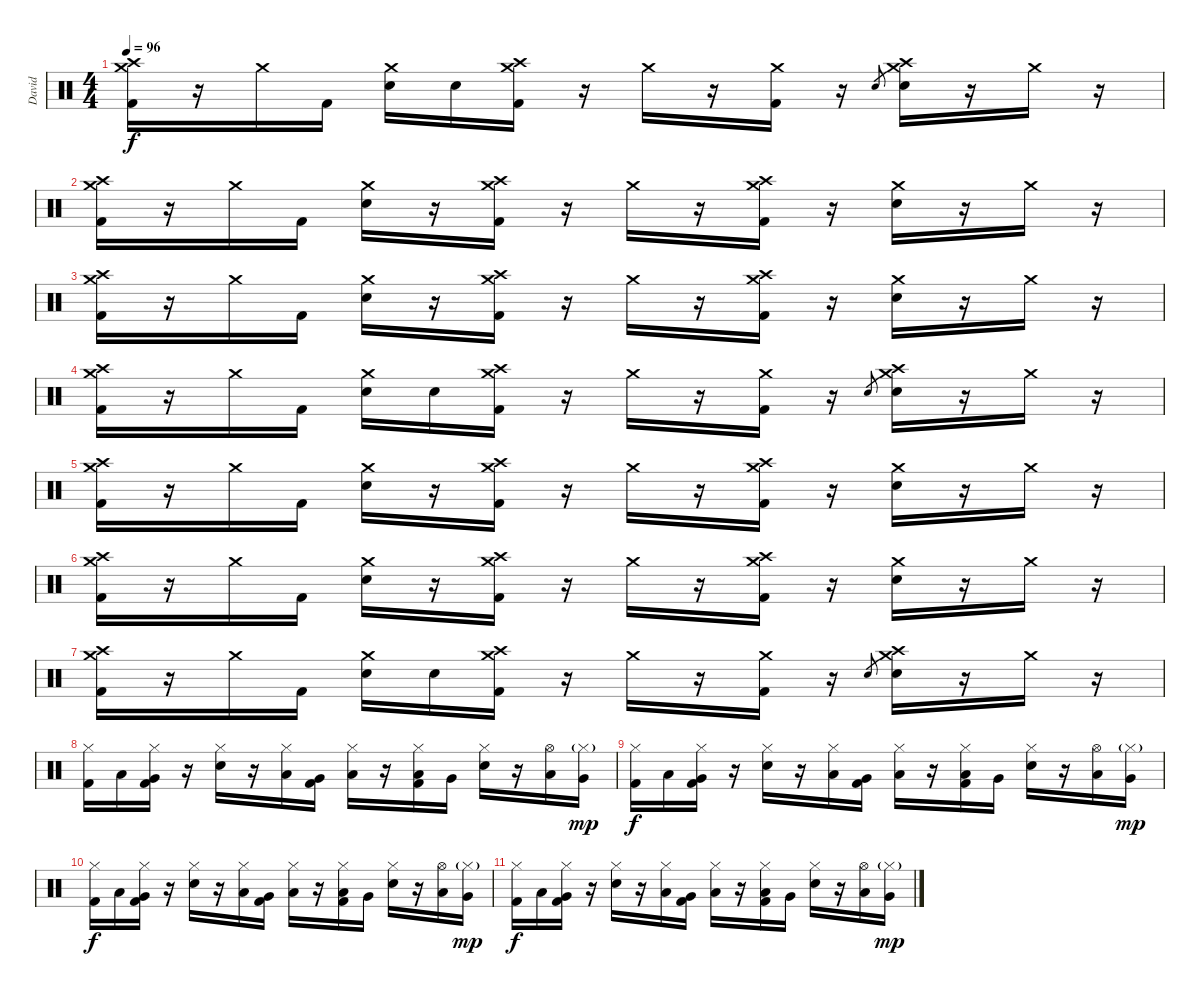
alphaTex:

\track ("David" "David") {instrument percussion}
\staff {score}
\articulation defaults
\ts (4 4)
\tempo 96
\clef neutral
\ks c
("Crash high (hit)" "Crash medium (hit)" "Kick (hit) 2").16{dy f} r.16 "Crash medium (hit)".16 "Kick (hit) 2".16 ("Crash medium (hit)" "Electric Snare (hit)").16 "Electric Snare (hit)".16 ("Crash high (hit)" "Crash medium (hit)" "Kick (hit) 2").16 r.16 "Crash medium (hit)".16 r.16 ("Crash medium (hit)" "Kick (hit) 2").16 r.16 "Electric Snare (hit)".8{gr} ("Crash high (hit)" "Crash medium (hit)" "Electric Snare (hit)").16 r.16 "Crash medium (hit)".16 r.16 |
("Crash high (hit)" "Crash medium (hit)" "Kick (hit) 2").16 r.16 "Crash medium (hit)".16 "Kick (hit) 2".16 ("Crash medium (hit)" "Electric Snare (hit)").16 r.16 ("Crash high (hit)" "Crash medium (hit)" "Kick (hit) 2").16 r.16 "Crash medium (hit)".16 r.16 ("Crash high (hit)" "Crash medium (hit)" "Kick (hit) 2").16 r.16 ("Crash medium (hit)" "Electric Snare (hit)").16 r.16 "Crash medium (hit)".16 r.16 |
("Crash high (hit)" "Crash medium (hit)" "Kick (hit) 2").16 r.16 "Crash medium (hit)".16 "Kick (hit) 2".16 ("Crash medium (hit)" "Electric Snare (hit)").16 r.16 ("Crash high (hit)" "Crash medium (hit)" "Kick (hit) 2").16 r.16 "Crash medium (hit)".16 r.16 ("Crash high (hit)" "Crash medium (hit)" "Kick (hit) 2").16 r.16 ("Crash medium (hit)" "Electric Snare (hit)").16 r.16 "Crash medium (hit)".16 r.16 |
("Crash high (hit)" "Crash medium (hit)" "Kick (hit) 2").16 r.16 "Crash medium (hit)".16 "Kick (hit) 2".16 ("Crash medium (hit)" "Electric Snare (hit)").16 "Electric Snare (hit)".16 ("Crash high (hit)" "Crash medium (hit)" "Kick (hit) 2").16 r.16 "Crash medium (hit)".16 r.16 ("Crash medium (hit)" "Kick (hit) 2").16 r.16 "Electric Snare (hit)".8{gr} ("Crash high (hit)" "Crash medium (hit)" "Electric Snare (hit)").16 r.16 "Crash medium (hit)".16 r.16 |
("Crash high (hit)" "Crash medium (hit)" "Kick (hit) 2").16 r.16 "Crash medium (hit)".16 "Kick (hit) 2".16 ("Crash medium (hit)" "Electric Snare (hit)").16 r.16 ("Crash high (hit)" "Crash medium (hit)" "Kick (hit) 2").16 r.16 "Crash medium (hit)".16 r.16 ("Crash high (hit)" "Crash medium (hit)" "Kick (hit) 2").16 r.16 ("Crash medium (hit)" "Electric Snare (hit)").16 r.16 "Crash medium (hit)".16 r.16 |
("Crash high (hit)" "Crash medium (hit)" "Kick (hit) 2").16 r.16 "Crash medium (hit)".16 "Kick (hit) 2".16 ("Crash medium (hit)" "Electric Snare (hit)").16 r.16 ("Crash high (hit)" "Crash medium (hit)" "Kick (hit) 2").16 r.16 "Crash medium (hit)".16 r.16 ("Crash high (hit)" "Crash medium (hit)" "Kick (hit) 2").16 r.16 ("Crash medium (hit)" "Electric Snare (hit)").16 r.16 "Crash medium (hit)".16 r.16 |
("Crash high (hit)" "Crash medium (hit)" "Kick (hit) 2").16 r.16 "Crash medium (hit)".16 "Kick (hit) 2".16 ("Crash medium (hit)" "Electric Snare (hit)").16 "Electric Snare (hit)".16 ("Crash high (hit)" "Crash medium (hit)" "Kick (hit) 2").16 r.16 "Crash medium (hit)".16 r.16 ("Crash medium (hit)" "Kick (hit) 2").16 r.16 "Electric Snare (hit)".8{gr} ("Crash high (hit)" "Crash medium (hit)" "Electric Snare (hit)").16 r.16 "Crash medium (hit)".16 r.16 |
("Hi-Hat (closed)" "Kick (hit) 2").16 "Low Tom (hit)".16 ("Hi-Hat (closed)" "Very Low Tom (hit)" "Kick (hit) 2").16 r.16 ("Hi-Hat (closed)" "Electric Snare (hit)").16 r.16 ("Hi-Hat (closed)" "Low Tom (hit)").16 ("Very Low Tom (hit)" "Kick (hit) 2").16 ("Hi-Hat (closed)" "Low Floor Tom (hit)").16 r.16 ("Hi-Hat (closed)" "Low Tom (hit)" "Kick (hit) 2").16 "Very Low Tom (hit)".16 ("Hi-Hat (closed)" "Electric Snare (hit)").16 r.16 ("Hi-Hat (open)" "Low Tom (hit)").16 ("Hi-Hat (closed)"{g} "Very Low Tom (hit)").16{dy mp} |
("Hi-Hat (closed)" "Kick (hit) 2").16{dy f} "Low Tom (hit)".16 ("Hi-Hat (closed)" "Very Low Tom (hit)" "Kick (hit) 2").16 r.16 ("Hi-Hat (closed)" "Electric Snare (hit)").16 r.16 ("Hi-Hat (closed)" "Low Tom (hit)").16 ("Very Low Tom (hit)" "Kick (hit) 2").16 ("Hi-Hat (closed)" "Low Floor Tom (hit)").16 r.16 ("Hi-Hat (closed)" "Low Tom (hit)" "Kick (hit) 2").16 "Very Low Tom (hit)".16 ("Hi-Hat (closed)" "Electric Snare (hit)").16 r.16 ("Hi-Hat (open)" "Low Tom (hit)").16 ("Hi-Hat (closed)"{g} "Very Low Tom (hit)").16{dy mp} |
("Hi-Hat (closed)" "Kick (hit) 2").16{dy f} "Low Tom (hit)".16 ("Hi-Hat (closed)" "Very Low Tom (hit)" "Kick (hit) 2").16 r.16 ("Hi-Hat (closed)" "Electric Snare (hit)").16 r.16 ("Hi-Hat (closed)" "Low Tom (hit)").16 ("Very Low Tom (hit)" "Kick (hit) 2").16 ("Hi-Hat (closed)" "Low Floor Tom (hit)").16 r.16 ("Hi-Hat (closed)" "Low Tom (hit)" "Kick (hit) 2").16 "Very Low Tom (hit)".16 ("Hi-Hat (closed)" "Electric Snare (hit)").16 r.16 ("Hi-Hat (open)" "Low Tom (hit)").16 ("Hi-Hat (closed)"{g} "Very Low Tom (hit)").16{dy mp} |
("Hi-Hat (closed)" "Kick (hit) 2").16{dy f} "Low Tom (hit)".16 ("Hi-Hat (closed)" "Very Low Tom (hit)" "Kick (hit) 2").16 r.16 ("Hi-Hat (closed)" "Electric Snare (hit)").16 r.16 ("Hi-Hat (closed)" "Low Tom (hit)").16 ("Very Low Tom (hit)" "Kick (hit) 2").16 ("Hi-Hat (closed)" "Low Floor Tom (hit)").16 r.16 ("Hi-Hat (closed)" "Low Tom (hit)" "Kick (hit) 2").16 "Very Low Tom (hit)".16 ("Hi-Hat (closed)" "Electric Snare (hit)").16 r.16 ("Hi-Hat (open)" "Low Tom (hit)").16 ("Hi-Hat (closed)"{g} "Very Low Tom (hit)").16{dy mp}
